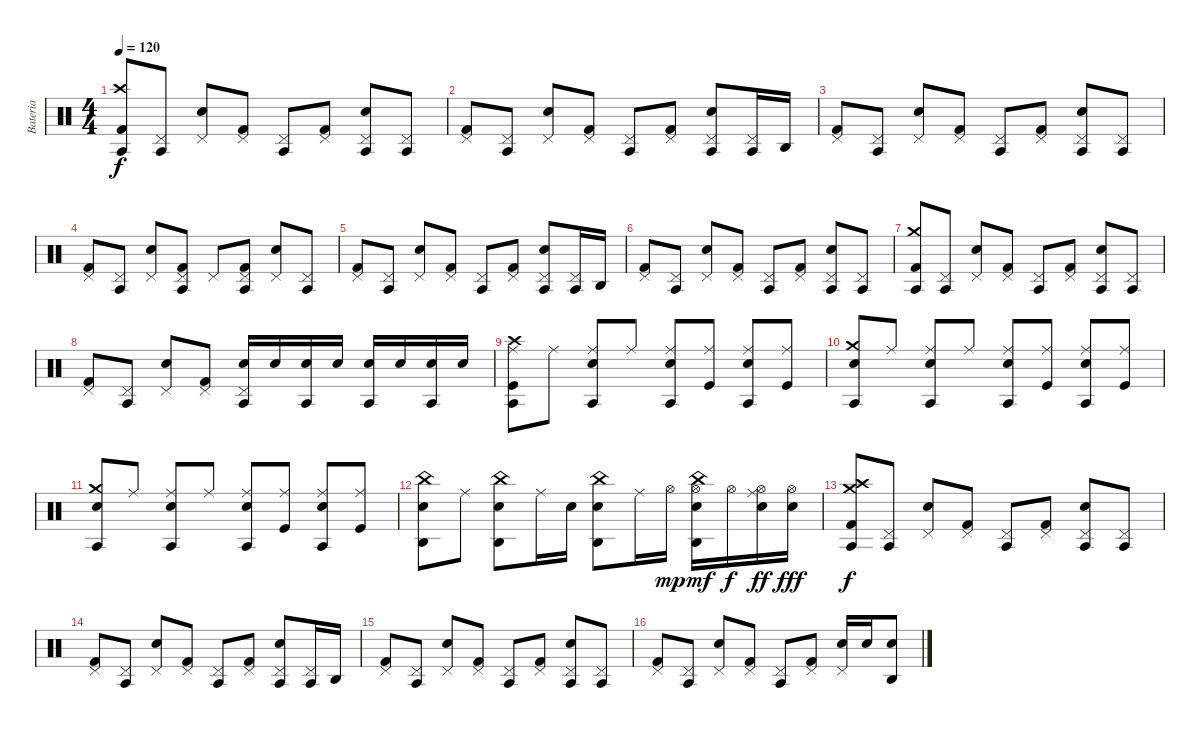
\track ("Bateria" "Bateria") {instrument percussion}
\staff {score}
\articulation defaults
\ts (4 4)
\tempo 120
\clef neutral
\ks c
("Crash high (hit)" "Agogo tow (hit)" "Kick (hit) 2").8{dy f} ("Pedal Hi-Hat (hit)" "Agogo tow (hit)").8 ("Pedal Hi-Hat (hit)" "Snare (hit) 2").8 ("Pedal Hi-Hat (hit)" "Kick (hit) 2").8 ("Pedal Hi-Hat (hit)" "Agogo tow (hit)").8 ("Pedal Hi-Hat (hit)" "Kick (hit) 2").8 ("Pedal Hi-Hat (hit)" "Snare (hit) 2" "Agogo tow (hit)").8 ("Pedal Hi-Hat (hit)" "Agogo tow (hit)").8 |
("Pedal Hi-Hat (hit)" "Kick (hit) 2").8 ("Pedal Hi-Hat (hit)" "Agogo tow (hit)").8 ("Pedal Hi-Hat (hit)" "Snare (hit) 2").8 ("Pedal Hi-Hat (hit)" "Kick (hit) 2").8 ("Pedal Hi-Hat (hit)" "Agogo tow (hit)").8 ("Pedal Hi-Hat (hit)" "Kick (hit) 2").8 ("Pedal Hi-Hat (hit)" "Snare (hit) 2" "Agogo tow (hit)").8 ("Pedal Hi-Hat (hit)" "Agogo tow (hit)").16 "Agogo high (hit)".16 |
("Pedal Hi-Hat (hit)" "Kick (hit) 2").8 ("Pedal Hi-Hat (hit)" "Agogo tow (hit)").8 ("Pedal Hi-Hat (hit)" "Snare (hit) 2").8 ("Pedal Hi-Hat (hit)" "Kick (hit) 2").8 ("Pedal Hi-Hat (hit)" "Agogo tow (hit)").8 ("Pedal Hi-Hat (hit)" "Kick (hit) 2").8 ("Pedal Hi-Hat (hit)" "Snare (hit) 2" "Agogo tow (hit)").8 ("Pedal Hi-Hat (hit)" "Agogo tow (hit)").8 |
("Pedal Hi-Hat (hit)" "Kick (hit) 2").8 ("Agogo tow (hit)" "Pedal Hi-Hat (hit)").8 ("Pedal Hi-Hat (hit)" "Snare (hit) 2").8 ("Agogo tow (hit)" "Pedal Hi-Hat (hit)" "Kick (hit) 2").8 "Pedal Hi-Hat (hit)".8 ("Agogo tow (hit)" "Pedal Hi-Hat (hit)" "Kick (hit) 2").8 ("Pedal Hi-Hat (hit)" "Snare (hit) 2").8 ("Agogo tow (hit)" "Pedal Hi-Hat (hit)").8 |
("Pedal Hi-Hat (hit)" "Kick (hit) 2").8 ("Pedal Hi-Hat (hit)" "Agogo tow (hit)").8 ("Pedal Hi-Hat (hit)" "Snare (hit) 2").8 ("Pedal Hi-Hat (hit)" "Kick (hit) 2").8 ("Pedal Hi-Hat (hit)" "Agogo tow (hit)").8 ("Pedal Hi-Hat (hit)" "Kick (hit) 2").8 ("Pedal Hi-Hat (hit)" "Snare (hit) 2" "Agogo tow (hit)").8 ("Pedal Hi-Hat (hit)" "Agogo tow (hit)").16 "Agogo high (hit)".16 |
("Pedal Hi-Hat (hit)" "Kick (hit) 2").8 ("Pedal Hi-Hat (hit)" "Agogo tow (hit)").8 ("Pedal Hi-Hat (hit)" "Snare (hit) 2").8 ("Pedal Hi-Hat (hit)" "Kick (hit) 2").8 ("Pedal Hi-Hat (hit)" "Agogo tow (hit)").8 ("Pedal Hi-Hat (hit)" "Kick (hit) 2").8 ("Pedal Hi-Hat (hit)" "Snare (hit) 2" "Agogo tow (hit)").8 ("Pedal Hi-Hat (hit)" "Agogo tow (hit)").8 |
("Crash medium (hit)" "Agogo tow (hit)" "Kick (hit) 2").8 ("Pedal Hi-Hat (hit)" "Agogo tow (hit)").8 ("Pedal Hi-Hat (hit)" "Snare (hit) 2").8 ("Pedal Hi-Hat (hit)" "Kick (hit) 2").8 ("Pedal Hi-Hat (hit)" "Agogo tow (hit)").8 ("Pedal Hi-Hat (hit)" "Kick (hit) 2").8 ("Pedal Hi-Hat (hit)" "Snare (hit) 2" "Agogo tow (hit)").8 ("Pedal Hi-Hat (hit)" "Agogo tow (hit)").8 |
("Pedal Hi-Hat (hit)" "Kick (hit) 2").8 ("Pedal Hi-Hat (hit)" "Agogo tow (hit)").8 ("Pedal Hi-Hat (hit)" "Snare (hit) 2").8 ("Pedal Hi-Hat (hit)" "Kick (hit) 2").8 ("Pedal Hi-Hat (hit)" "Snare (hit) 2" "Agogo tow (hit)").16 "Snare (hit) 2".16 ("Snare (hit) 2" "Agogo tow (hit)").16 "Snare (hit) 2".16 ("Snare (hit) 2" "Agogo tow (hit)").16 "Snare (hit) 2".16 ("Snare (hit) 2" "Agogo tow (hit)").16 "Snare (hit) 2".16 |
("Agogo tow (hit)" "Ride (middle)" "Crash high (hit)" "Kick (hit)").8 "Ride (middle)".8 ("Agogo tow (hit)" "Ride (middle)" "Snare (hit) 2").8 "Ride (middle)".8 ("Agogo tow (hit)" "Ride (middle)" "Snare (hit) 2").8 ("Ride (middle)" "Kick (hit)").8 ("Agogo tow (hit)" "Ride (middle)" "Snare (hit) 2").8 ("Ride (middle)" "Kick (hit)").8 |
("Agogo tow (hit)" "Crash medium (hit)" "Snare (hit) 2").8 "Ride (middle)".8 ("Agogo tow (hit)" "Ride (middle)" "Snare (hit) 2").8 "Ride (middle)".8 ("Agogo tow (hit)" "Ride (middle)" "Snare (hit) 2").8 ("Ride (middle)" "Kick (hit)").8 ("Agogo tow (hit)" "Ride (middle)" "Snare (hit) 2").8 ("Ride (middle)" "Kick (hit)").8 |
("Agogo tow (hit)" "Crash medium (hit)" "Snare (hit) 2").8 "Ride (middle)".8 ("Agogo tow (hit)" "Ride (middle)" "Snare (hit) 2").8 "Ride (middle)".8 ("Agogo tow (hit)" "Ride (middle)" "Snare (hit) 2").8 ("Ride (middle)" "Kick (hit)").8 ("Agogo tow (hit)" "Ride (middle)" "Snare (hit) 2").8 ("Ride (middle)" "Kick (hit)").8 |
("Agogo high (hit)" "China (hit)" "Snare (hit) 2").8 "Ride (middle)".8 ("Agogo high (hit)" "China (hit)" "Snare (hit) 2").8 "Ride (middle)".16 "Snare (hit) 2".16 ("Agogo high (hit)" "China (hit)" "Snare (hit) 2").8 "Ride (middle)".16 "Hi-Hat (open)".16{dy mp} ("Agogo high (hit)" "China (hit)" "Hi-Hat (open)" "Snare (hit) 2").16{dy mf} "Hi-Hat (open)".16{dy f} ("Ride (middle)" "Hi-Hat (open)" "Snare (hit) 2").16{dy ff} ("Hi-Hat (open)" "Snare (hit) 2").16{dy fff} |
("Crash high (hit)" "Crash medium (hit)" "Agogo tow (hit)" "Kick (hit) 2").8{dy f} ("Pedal Hi-Hat (hit)" "Agogo tow (hit)").8 ("Pedal Hi-Hat (hit)" "Snare (hit) 2").8 ("Pedal Hi-Hat (hit)" "Kick (hit) 2").8 ("Pedal Hi-Hat (hit)" "Agogo tow (hit)").8 ("Pedal Hi-Hat (hit)" "Kick (hit) 2").8 ("Pedal Hi-Hat (hit)" "Snare (hit) 2" "Agogo tow (hit)").8 ("Pedal Hi-Hat (hit)" "Agogo tow (hit)").8 |
("Pedal Hi-Hat (hit)" "Kick (hit) 2").8 ("Pedal Hi-Hat (hit)" "Agogo tow (hit)").8 ("Pedal Hi-Hat (hit)" "Snare (hit) 2").8 ("Pedal Hi-Hat (hit)" "Kick (hit) 2").8 ("Pedal Hi-Hat (hit)" "Agogo tow (hit)").8 ("Pedal Hi-Hat (hit)" "Kick (hit) 2").8 ("Pedal Hi-Hat (hit)" "Snare (hit) 2" "Agogo tow (hit)").8 ("Pedal Hi-Hat (hit)" "Agogo tow (hit)").16 "Agogo high (hit)".16 |
("Pedal Hi-Hat (hit)" "Kick (hit) 2").8 ("Pedal Hi-Hat (hit)" "Agogo tow (hit)").8 ("Pedal Hi-Hat (hit)" "Snare (hit) 2").8 ("Pedal Hi-Hat (hit)" "Kick (hit) 2").8 ("Pedal Hi-Hat (hit)" "Agogo tow (hit)").8 ("Pedal Hi-Hat (hit)" "Kick (hit) 2").8 ("Pedal Hi-Hat (hit)" "Snare (hit) 2" "Agogo tow (hit)").8 ("Pedal Hi-Hat (hit)" "Agogo tow (hit)").8 |
("Pedal Hi-Hat (hit)" "Kick (hit) 2").8 ("Pedal Hi-Hat (hit)" "Agogo tow (hit)").8 ("Pedal Hi-Hat (hit)" "Snare (hit) 2").8 ("Pedal Hi-Hat (hit)" "Kick (hit) 2").8 ("Pedal Hi-Hat (hit)" "Agogo tow (hit)").8 ("Pedal Hi-Hat (hit)" "Kick (hit) 2").8 ("Pedal Hi-Hat (hit)" "Snare (hit) 2").16 "Snare (hit) 2".16 ("Snare (hit) 2" "Agogo high (hit)").8
